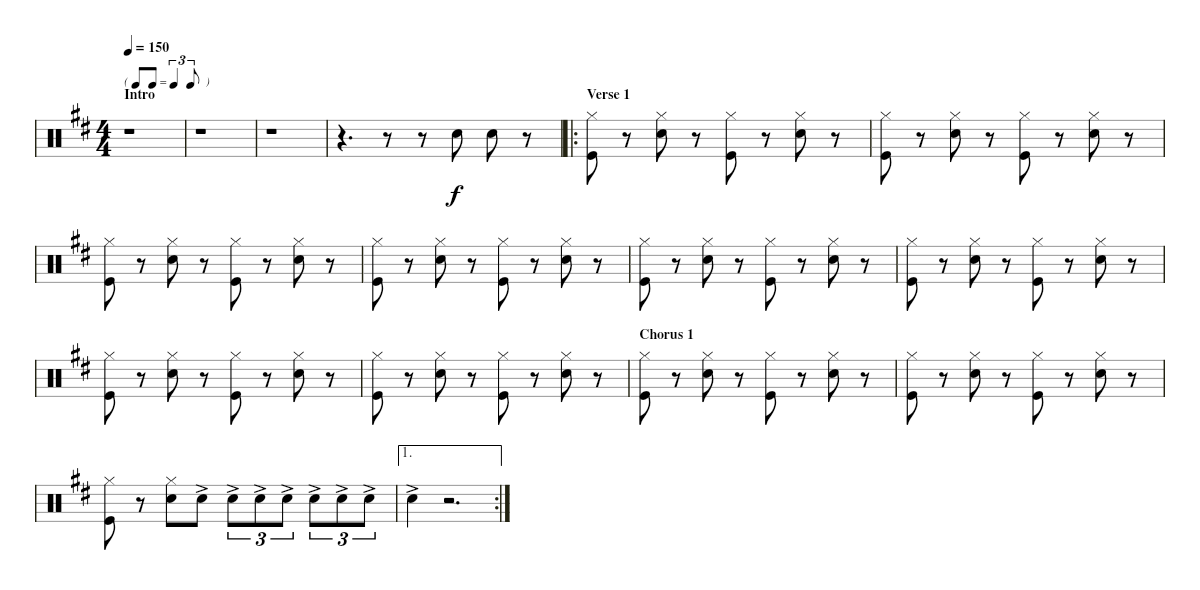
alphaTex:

\bracketExtendMode nobrackets
\singleTrackTrackNamePolicy hidden
\multiTrackTrackNamePolicy hidden
\firstSystemTrackNameMode fullname
\firstSystemTrackNameOrientation horizontal
\otherSystemsTrackNameOrientation horizontal
\defaultBarNumberDisplay Hide
\track ("Drumkit" "Drums") {instrument percussion}
\staff {score}
\articulation defaults
\ts (4 4)
\tf triplet8th
\section ("" "Intro")
\tempo 150
\clef neutral
\ks d
r.1{dy f} |
r.1 |
r.1 |
r.4{d} r.8 r.8 "Snare (hit) 2".8 "Snare (hit) 2".8 r.8 |
\ro
\section ("" "Verse 1")
("Kick (hit)" "Hi-Hat (closed)").8 r.8 ("Snare (hit) 2" "Hi-Hat (closed)").8 r.8 ("Kick (hit)" "Hi-Hat (closed)").8 r.8 ("Snare (hit) 2" "Hi-Hat (closed)").8 r.8 |
("Kick (hit)" "Hi-Hat (closed)").8 r.8 ("Snare (hit) 2" "Hi-Hat (closed)").8 r.8 ("Kick (hit)" "Hi-Hat (closed)").8 r.8 ("Snare (hit) 2" "Hi-Hat (closed)").8 r.8 |
("Kick (hit)" "Hi-Hat (closed)").8 r.8 ("Snare (hit) 2" "Hi-Hat (closed)").8 r.8 ("Kick (hit)" "Hi-Hat (closed)").8 r.8 ("Snare (hit) 2" "Hi-Hat (closed)").8 r.8 |
("Kick (hit)" "Hi-Hat (closed)").8 r.8 ("Snare (hit) 2" "Hi-Hat (closed)").8 r.8 ("Kick (hit)" "Hi-Hat (closed)").8 r.8 ("Snare (hit) 2" "Hi-Hat (closed)").8 r.8 |
("Kick (hit)" "Hi-Hat (closed)").8 r.8 ("Snare (hit) 2" "Hi-Hat (closed)").8 r.8 ("Kick (hit)" "Hi-Hat (closed)").8 r.8 ("Snare (hit) 2" "Hi-Hat (closed)").8 r.8 |
("Kick (hit)" "Hi-Hat (closed)").8 r.8 ("Snare (hit) 2" "Hi-Hat (closed)").8 r.8 ("Kick (hit)" "Hi-Hat (closed)").8 r.8 ("Snare (hit) 2" "Hi-Hat (closed)").8 r.8 |
\scale
0.5 ("Kick (hit)" "Hi-Hat (closed)").8 r.8 ("Snare (hit) 2" "Hi-Hat (closed)").8 r.8 ("Kick (hit)" "Hi-Hat (closed)").8 r.8 ("Snare (hit) 2" "Hi-Hat (closed)").8 r.8 |
\scale
0.5 ("Kick (hit)" "Hi-Hat (closed)").8 r.8 ("Snare (hit) 2" "Hi-Hat (closed)").8 r.8 ("Kick (hit)" "Hi-Hat (closed)").8 r.8 ("Snare (hit) 2" "Hi-Hat (closed)").8 r.8 |
\section ("" "Chorus 1")
\scale
0.5 ("Kick (hit)" "Hi-Hat (closed)").8 r.8 ("Snare (hit) 2" "Hi-Hat (closed)").8 r.8 ("Kick (hit)" "Hi-Hat (closed)").8 r.8 ("Snare (hit) 2" "Hi-Hat (closed)").8 r.8 |
\scale
0.5 ("Kick (hit)" "Hi-Hat (closed)").8 r.8 ("Snare (hit) 2" "Hi-Hat (closed)").8 r.8 ("Kick (hit)" "Hi-Hat (closed)").8 r.8 ("Snare (hit) 2" "Hi-Hat (closed)").8 r.8 |
("Kick (hit)" "Hi-Hat (closed)").8 r.8 ("Snare (hit) 2" "Hi-Hat (closed)").8 "Snare (hit) 2"{ac}.8 "Snare (hit) 2"{ac}.8{tu (3 2)} "Snare (hit) 2"{ac}.8{tu (3 2)} "Snare (hit) 2"{ac}.8{tu (3 2)} "Snare (hit) 2"{ac}.8{tu (3 2)} "Snare (hit) 2"{ac}.8{tu (3 2)} "Snare (hit) 2"{ac}.8{tu (3 2)} |
\ae 1
\rc 2 "Snare (hit) 2"{ac}.4
r.2{d}
